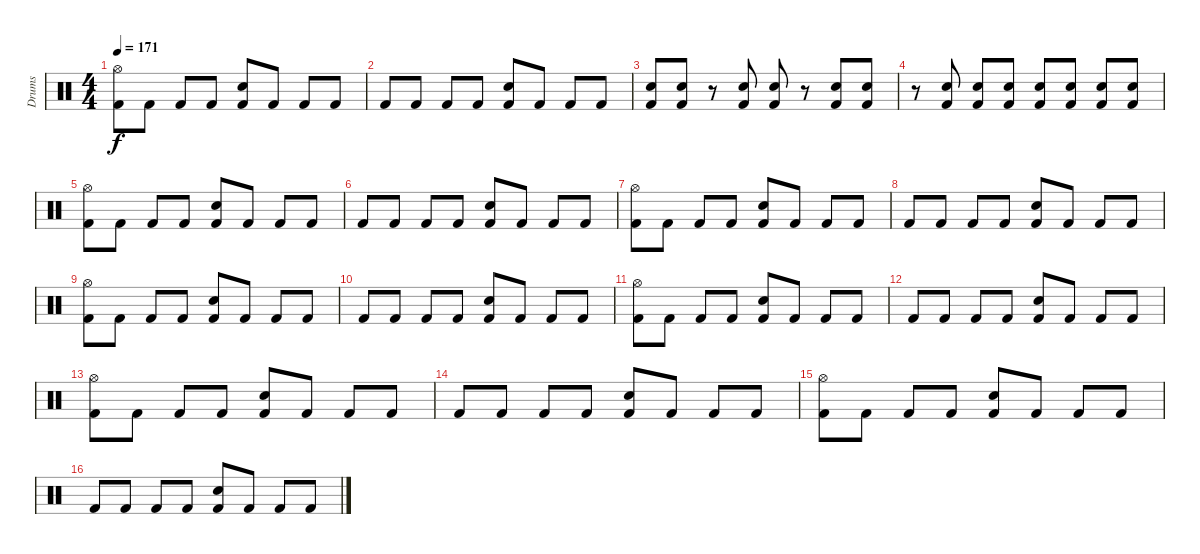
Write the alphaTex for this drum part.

\track ("Drums" "Drums") {instrument percussion}
\staff {score}
\articulation defaults
\ts (4 4)
\tempo 171
\clef neutral
\ks c
("Hi-Hat (open)" "Kick (hit) 2").8{dy f} "Kick (hit) 2".8 "Kick (hit) 2".8 "Kick (hit) 2".8 ("Snare (hit) 2" "Kick (hit) 2").8 "Kick (hit) 2".8 "Kick (hit) 2".8 "Kick (hit) 2".8 |
"Kick (hit) 2".8 "Kick (hit) 2".8 "Kick (hit) 2".8 "Kick (hit) 2".8 ("Snare (hit) 2" "Kick (hit) 2").8 "Kick (hit) 2".8 "Kick (hit) 2".8 "Kick (hit) 2".8 |
("Snare (hit) 2" "Kick (hit) 2").8 ("Snare (hit) 2" "Kick (hit) 2").8 r.8 ("Snare (hit) 2" "Kick (hit) 2").8 ("Snare (hit) 2" "Kick (hit) 2").8 r.8 ("Snare (hit) 2" "Kick (hit) 2").8 ("Snare (hit) 2" "Kick (hit) 2").8 |
r.8 ("Snare (hit) 2" "Kick (hit) 2").8 ("Snare (hit) 2" "Kick (hit) 2").8 ("Snare (hit) 2" "Kick (hit) 2").8 ("Snare (hit) 2" "Kick (hit) 2").8 ("Snare (hit) 2" "Kick (hit) 2").8 ("Snare (hit) 2" "Kick (hit) 2").8 ("Snare (hit) 2" "Kick (hit) 2").8 |
("Hi-Hat (open)" "Kick (hit) 2").8 "Kick (hit) 2".8 "Kick (hit) 2".8 "Kick (hit) 2".8 ("Snare (hit) 2" "Kick (hit) 2").8 "Kick (hit) 2".8 "Kick (hit) 2".8 "Kick (hit) 2".8 |
"Kick (hit) 2".8 "Kick (hit) 2".8 "Kick (hit) 2".8 "Kick (hit) 2".8 ("Snare (hit) 2" "Kick (hit) 2").8 "Kick (hit) 2".8 "Kick (hit) 2".8 "Kick (hit) 2".8 |
("Hi-Hat (open)" "Kick (hit) 2").8 "Kick (hit) 2".8 "Kick (hit) 2".8 "Kick (hit) 2".8 ("Snare (hit) 2" "Kick (hit) 2").8 "Kick (hit) 2".8 "Kick (hit) 2".8 "Kick (hit) 2".8 |
"Kick (hit) 2".8 "Kick (hit) 2".8 "Kick (hit) 2".8 "Kick (hit) 2".8 ("Snare (hit) 2" "Kick (hit) 2").8 "Kick (hit) 2".8 "Kick (hit) 2".8 "Kick (hit) 2".8 |
("Hi-Hat (open)" "Kick (hit) 2").8 "Kick (hit) 2".8 "Kick (hit) 2".8 "Kick (hit) 2".8 ("Snare (hit) 2" "Kick (hit) 2").8 "Kick (hit) 2".8 "Kick (hit) 2".8 "Kick (hit) 2".8 |
"Kick (hit) 2".8 "Kick (hit) 2".8 "Kick (hit) 2".8 "Kick (hit) 2".8 ("Snare (hit) 2" "Kick (hit) 2").8 "Kick (hit) 2".8 "Kick (hit) 2".8 "Kick (hit) 2".8 |
("Hi-Hat (open)" "Kick (hit) 2").8 "Kick (hit) 2".8 "Kick (hit) 2".8 "Kick (hit) 2".8 ("Snare (hit) 2" "Kick (hit) 2").8 "Kick (hit) 2".8 "Kick (hit) 2".8 "Kick (hit) 2".8 |
"Kick (hit) 2".8 "Kick (hit) 2".8 "Kick (hit) 2".8 "Kick (hit) 2".8 ("Snare (hit) 2" "Kick (hit) 2").8 "Kick (hit) 2".8 "Kick (hit) 2".8 "Kick (hit) 2".8 |
("Hi-Hat (open)" "Kick (hit) 2").8 "Kick (hit) 2".8 "Kick (hit) 2".8 "Kick (hit) 2".8 ("Snare (hit) 2" "Kick (hit) 2").8 "Kick (hit) 2".8 "Kick (hit) 2".8 "Kick (hit) 2".8 |
"Kick (hit) 2".8 "Kick (hit) 2".8 "Kick (hit) 2".8 "Kick (hit) 2".8 ("Snare (hit) 2" "Kick (hit) 2").8 "Kick (hit) 2".8 "Kick (hit) 2".8 "Kick (hit) 2".8 |
("Hi-Hat (open)" "Kick (hit) 2").8 "Kick (hit) 2".8 "Kick (hit) 2".8 "Kick (hit) 2".8 ("Snare (hit) 2" "Kick (hit) 2").8 "Kick (hit) 2".8 "Kick (hit) 2".8 "Kick (hit) 2".8 |
"Kick (hit) 2".8 "Kick (hit) 2".8 "Kick (hit) 2".8 "Kick (hit) 2".8 ("Snare (hit) 2" "Kick (hit) 2").8 "Kick (hit) 2".8 "Kick (hit) 2".8 "Kick (hit) 2".8
